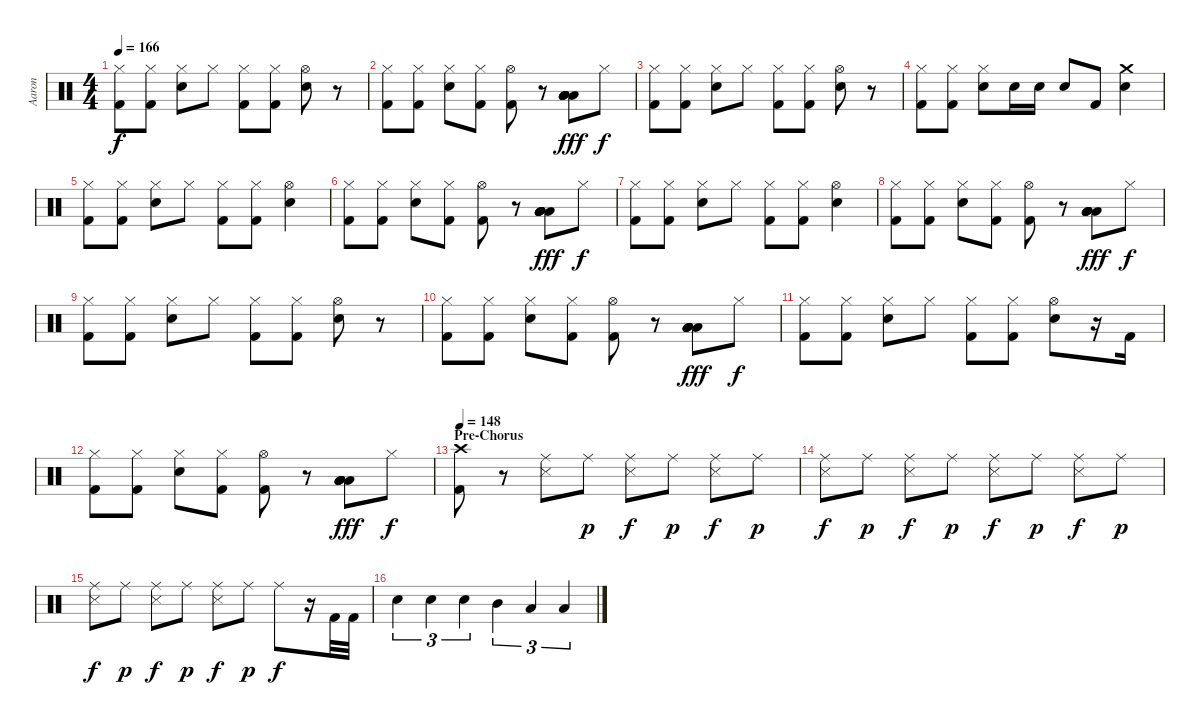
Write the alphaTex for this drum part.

\track ("Aaron" "Aaron") {instrument percussion}
\staff {score}
\articulation defaults
\ts (4 4)
\tempo 166
\clef neutral
\ks c
("Hi-Hat (closed)" "Kick (hit) 2").8{dy f} ("Hi-Hat (closed)" "Kick (hit) 2").8 ("Hi-Hat (closed)" "Snare (hit) 2").8 "Hi-Hat (closed)".8 ("Hi-Hat (closed)" "Kick (hit) 2").8 ("Hi-Hat (closed)" "Kick (hit) 2").8 ("Hi-Hat (open)" "Snare (hit) 2").8 r.8 |
("Hi-Hat (closed)" "Kick (hit) 2").8 ("Hi-Hat (closed)" "Kick (hit) 2").8 ("Hi-Hat (closed)" "Snare (hit) 2").8 ("Hi-Hat (closed)" "Kick (hit) 2").8 ("Hi-Hat (open)" "Kick (hit) 2").8 r.8 ("Low Floor Tom (hit)" "Low Floor Tom (hit)" "Low Floor Tom (hit)" "Low Floor Tom (hit)" "Low Floor Tom (hit)").8{dy fff} "Hi-Hat (closed)".8{dy f} |
("Hi-Hat (closed)" "Kick (hit) 2").8 ("Hi-Hat (closed)" "Kick (hit) 2").8 ("Hi-Hat (closed)" "Snare (hit) 2").8 "Hi-Hat (closed)".8 ("Hi-Hat (closed)" "Kick (hit) 2").8 ("Hi-Hat (closed)" "Kick (hit) 2").8 ("Hi-Hat (open)" "Snare (hit) 2").8 r.8 |
("Hi-Hat (closed)" "Kick (hit) 2").8 ("Hi-Hat (closed)" "Kick (hit) 2").8 ("Hi-Hat (closed)" "Snare (hit) 2").8 "Snare (hit) 2".16 "Snare (hit) 2".16 "Snare (hit) 2".8 "Kick (hit) 2".8 ("Crash medium (hit)" "Snare (hit) 2").4 |
("Hi-Hat (closed)" "Kick (hit) 2").8 ("Hi-Hat (closed)" "Kick (hit) 2").8 ("Hi-Hat (closed)" "Snare (hit) 2").8 "Hi-Hat (closed)".8 ("Hi-Hat (closed)" "Kick (hit) 2").8 ("Hi-Hat (closed)" "Kick (hit) 2").8 ("Hi-Hat (open)" "Snare (hit) 2").4 |
("Hi-Hat (closed)" "Kick (hit) 2").8 ("Hi-Hat (closed)" "Kick (hit) 2").8 ("Hi-Hat (closed)" "Snare (hit) 2").8 ("Hi-Hat (closed)" "Kick (hit) 2").8 ("Hi-Hat (open)" "Kick (hit) 2").8 r.8 ("Low Floor Tom (hit)" "Low Floor Tom (hit)" "Low Floor Tom (hit)" "Low Floor Tom (hit)" "Low Floor Tom (hit)").8{dy fff} "Hi-Hat (closed)".8{dy f} |
("Hi-Hat (closed)" "Kick (hit) 2").8 ("Hi-Hat (closed)" "Kick (hit) 2").8 ("Hi-Hat (closed)" "Snare (hit) 2").8 "Hi-Hat (closed)".8 ("Hi-Hat (closed)" "Kick (hit) 2").8 ("Hi-Hat (closed)" "Kick (hit) 2").8 ("Hi-Hat (open)" "Snare (hit) 2").4 |
("Hi-Hat (closed)" "Kick (hit) 2").8 ("Hi-Hat (closed)" "Kick (hit) 2").8 ("Hi-Hat (closed)" "Snare (hit) 2").8 ("Hi-Hat (closed)" "Kick (hit) 2").8 ("Hi-Hat (open)" "Kick (hit) 2").8 r.8 ("Low Floor Tom (hit)" "Low Floor Tom (hit)" "Low Floor Tom (hit)" "Low Floor Tom (hit)" "Low Floor Tom (hit)").8{dy fff} "Hi-Hat (closed)".8{dy f} |
("Hi-Hat (closed)" "Kick (hit) 2").8 ("Hi-Hat (closed)" "Kick (hit) 2").8 ("Hi-Hat (closed)" "Snare (hit) 2").8 "Hi-Hat (closed)".8 ("Hi-Hat (closed)" "Kick (hit) 2").8 ("Hi-Hat (closed)" "Kick (hit) 2").8 ("Hi-Hat (open)" "Snare (hit) 2").8 r.8 |
("Hi-Hat (closed)" "Kick (hit) 2").8 ("Hi-Hat (closed)" "Kick (hit) 2").8 ("Hi-Hat (closed)" "Snare (hit) 2").8 ("Hi-Hat (closed)" "Kick (hit) 2").8 ("Hi-Hat (open)" "Kick (hit) 2").8 r.8 ("Low Floor Tom (hit)" "Low Floor Tom (hit)" "Low Floor Tom (hit)" "Low Floor Tom (hit)" "Low Floor Tom (hit)").8{dy fff} "Hi-Hat (closed)".8{dy f} |
("Hi-Hat (closed)" "Kick (hit) 2").8 ("Hi-Hat (closed)" "Kick (hit) 2").8 ("Hi-Hat (closed)" "Snare (hit) 2").8 "Hi-Hat (closed)".8 ("Hi-Hat (closed)" "Kick (hit) 2").8 ("Hi-Hat (closed)" "Kick (hit) 2").8 ("Hi-Hat (open)" "Snare (hit) 2").8 r.16 "Kick (hit) 2".16 |
("Hi-Hat (closed)" "Kick (hit) 2").8 ("Hi-Hat (closed)" "Kick (hit) 2").8 ("Hi-Hat (closed)" "Snare (hit) 2").8 ("Hi-Hat (closed)" "Kick (hit) 2").8 ("Hi-Hat (open)" "Kick (hit) 2").8 r.8 ("Low Floor Tom (hit)" "Low Floor Tom (hit)" "Low Floor Tom (hit)" "Low Floor Tom (hit)" "Low Floor Tom (hit)").8{dy fff} "Hi-Hat (closed)".8{dy f} |
\section ("" "Pre-Chorus")
\tempo 148
("Crash high (hit)" "Kick (hit) 2").8 r.8 ("Ride (middle)" "Snare (side stick) 3").8 "Ride (middle)".8{dy p} ("Ride (middle)" "Snare (side stick) 3").8{dy f} "Ride (middle)".8{dy p} ("Ride (middle)" "Snare (side stick) 3").8{dy f} "Ride (middle)".8{dy p} |
("Ride (middle)" "Snare (side stick) 3").8{dy f} "Ride (middle)".8{dy p} ("Ride (middle)" "Snare (side stick) 3").8{dy f} "Ride (middle)".8{dy p} ("Ride (middle)" "Snare (side stick) 3").8{dy f} "Ride (middle)".8{dy p} ("Ride (middle)" "Snare (side stick) 3").8{dy f} "Ride (middle)".8{dy p} |
("Ride (middle)" "Snare (side stick) 3").8{dy f} "Ride (middle)".8{dy p} ("Ride (middle)" "Snare (side stick) 3").8{dy f} "Ride (middle)".8{dy p} ("Ride (middle)" "Snare (side stick) 3").8{dy f} "Ride (middle)".8{dy p} "Ride (middle)".8{dy f} r.16 "Kick (hit) 2".32 "Kick (hit) 2".32 |
"Snare (hit) 2".4{tu (3 2)} "Snare (hit) 2".4{tu (3 2)} "Snare (hit) 2".4{tu (3 2)} "Mid Tom (hit)".4{tu (3 2)} "Low Tom (hit)".4{tu (3 2)} "Low Floor Tom (hit)".4{tu (3 2)}
